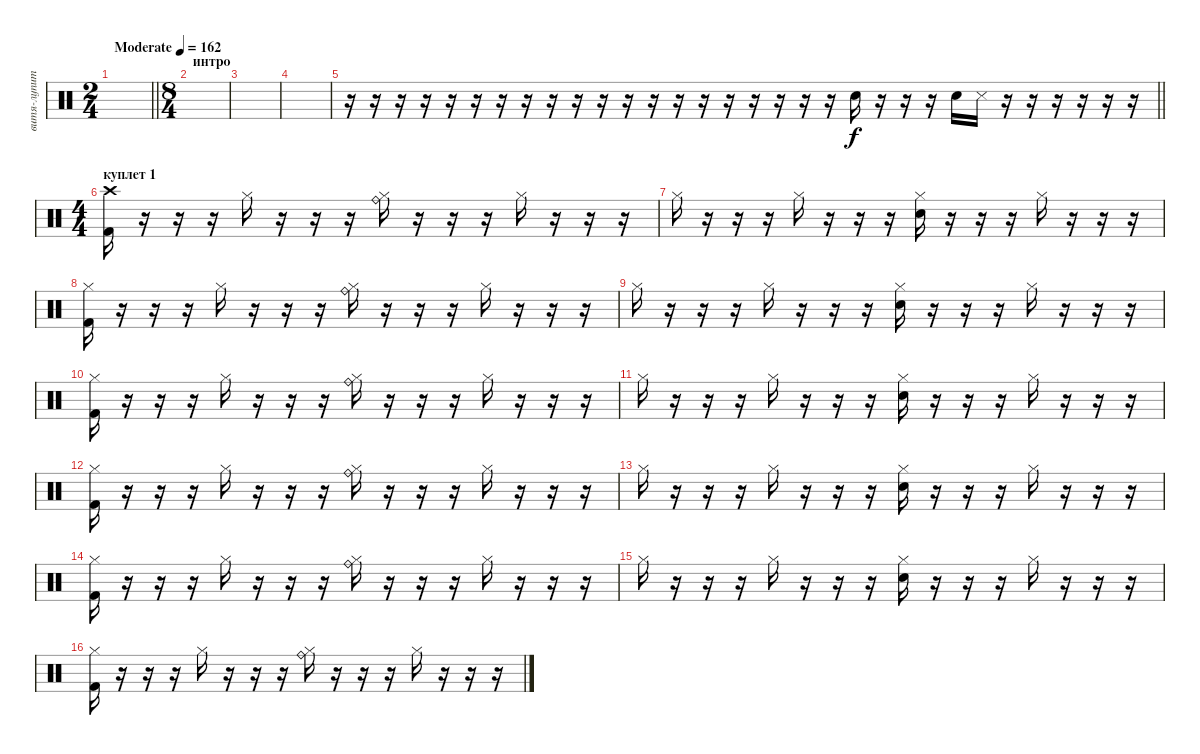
\track ("витя-лупит" "витя-лупит") {instrument percussion}
\staff {score}
\articulation defaults
\ts (2 4)
\tempo (162 "Moderate")
\clef neutral
\barLineRight lightlight
\ks c
|
\ts (8 4)
\section ("" "интро")
|
|
|
\barLineRight lightlight
r.16 r.16 r.16 r.16 r.16 r.16 r.16 r.16 r.16 r.16 r.16 r.16 r.16 r.16 r.16 r.16 r.16 r.16 r.16 r.16 "Snare (hit) 2".16 r.16 r.16 r.16 "Snare (hit) 2".16 "Snare (side stick) 3".16 r.16 r.16 r.16 r.16 r.16 r.16 |
\ts (4 4)
\section ("" "куплет 1")
("Crash high (hit)" "Kick (hit) 2").16 r.16 r.16 r.16 "Hi-Hat (closed)".16 r.16 r.16 r.16 ("Ride (bell)" "Hi-Hat (closed)").16 r.16 r.16 r.16 "Hi-Hat (closed)".16 r.16 r.16 r.16 |
"Hi-Hat (closed)".16 r.16 r.16 r.16 "Hi-Hat (closed)".16 r.16 r.16 r.16 ("Snare (hit) 2" "Hi-Hat (closed)").16 r.16 r.16 r.16 "Hi-Hat (closed)".16 r.16 r.16 r.16 |
("Kick (hit) 2" "Hi-Hat (closed)").16 r.16 r.16 r.16 "Hi-Hat (closed)".16 r.16 r.16 r.16 ("Ride (bell)" "Hi-Hat (closed)").16 r.16 r.16 r.16 "Hi-Hat (closed)".16 r.16 r.16 r.16 |
"Hi-Hat (closed)".16 r.16 r.16 r.16 "Hi-Hat (closed)".16 r.16 r.16 r.16 ("Snare (hit) 2" "Hi-Hat (closed)").16 r.16 r.16 r.16 "Hi-Hat (closed)".16 r.16 r.16 r.16 |
("Kick (hit) 2" "Hi-Hat (closed)").16 r.16 r.16 r.16 "Hi-Hat (closed)".16 r.16 r.16 r.16 ("Ride (bell)" "Hi-Hat (closed)").16 r.16 r.16 r.16 "Hi-Hat (closed)".16 r.16 r.16 r.16 |
"Hi-Hat (closed)".16 r.16 r.16 r.16 "Hi-Hat (closed)".16 r.16 r.16 r.16 ("Snare (hit) 2" "Hi-Hat (closed)").16 r.16 r.16 r.16 "Hi-Hat (closed)".16 r.16 r.16 r.16 |
("Kick (hit) 2" "Hi-Hat (closed)").16 r.16 r.16 r.16 "Hi-Hat (closed)".16 r.16 r.16 r.16 ("Ride (bell)" "Hi-Hat (closed)").16 r.16 r.16 r.16 "Hi-Hat (closed)".16 r.16 r.16 r.16 |
"Hi-Hat (closed)".16 r.16 r.16 r.16 "Hi-Hat (closed)".16 r.16 r.16 r.16 ("Snare (hit) 2" "Hi-Hat (closed)").16 r.16 r.16 r.16 "Hi-Hat (closed)".16 r.16 r.16 r.16 |
("Kick (hit) 2" "Hi-Hat (closed)").16 r.16 r.16 r.16 "Hi-Hat (closed)".16 r.16 r.16 r.16 ("Ride (bell)" "Hi-Hat (closed)").16 r.16 r.16 r.16 "Hi-Hat (closed)".16 r.16 r.16 r.16 |
"Hi-Hat (closed)".16 r.16 r.16 r.16 "Hi-Hat (closed)".16 r.16 r.16 r.16 ("Snare (hit) 2" "Hi-Hat (closed)").16 r.16 r.16 r.16 "Hi-Hat (closed)".16 r.16 r.16 r.16 |
("Kick (hit) 2" "Hi-Hat (closed)").16 r.16 r.16 r.16 "Hi-Hat (closed)".16 r.16 r.16 r.16 ("Ride (bell)" "Hi-Hat (closed)").16 r.16 r.16 r.16 "Hi-Hat (closed)".16 r.16 r.16 r.16
